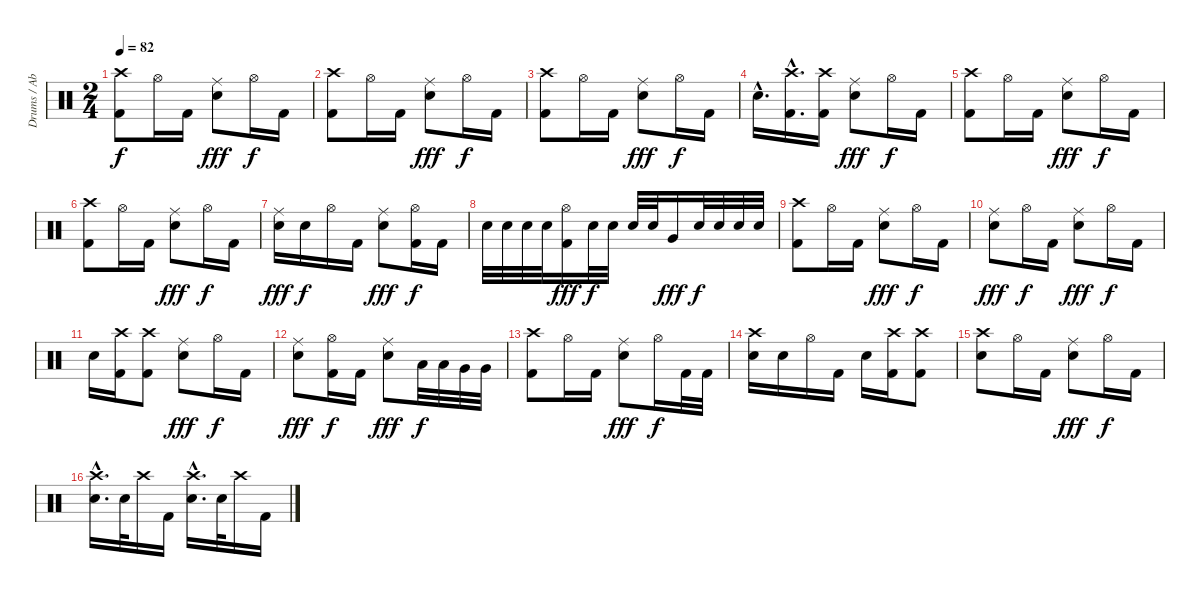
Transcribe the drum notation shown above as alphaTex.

\track ("Drums / Abe Cunningham" "Drums / Ab") {instrument percussion}
\staff {score}
\articulation defaults
\ts (2 4)
\tempo 82
\clef neutral
\ks c
("Crash high (hit)" "Kick (hit) 2").8{dy f} "Hi-Hat (open)".16 "Kick (hit) 2".16 ("Ride (middle)" "Electric Snare (hit)").8{dy fff} "Hi-Hat (open)".16{dy f} "Kick (hit) 2".16 |
("Crash high (hit)" "Kick (hit) 2").8 "Hi-Hat (open)".16 "Kick (hit) 2".16 ("Ride (middle)" "Electric Snare (hit)").8{dy fff} "Hi-Hat (open)".16{dy f} "Kick (hit) 2".16 |
("Crash high (hit)" "Kick (hit) 2").8 "Hi-Hat (open)".16 "Kick (hit) 2".16 ("Ride (middle)" "Electric Snare (hit)").8{dy fff} "Hi-Hat (open)".16{dy f} "Kick (hit) 2".16 |
"Electric Snare (hit)"{hac}.16{d} ("Crash high (hit)"{hac} "Kick (hit) 2"{hac}).16{d} ("Crash high (hit)" "Kick (hit) 2").16 ("Ride (middle)" "Electric Snare (hit)").8{dy fff} "Hi-Hat (open)".16{dy f} "Kick (hit) 2".16 |
("Crash high (hit)" "Kick (hit) 2").8 "Hi-Hat (open)".16 "Kick (hit) 2".16 ("Ride (middle)" "Electric Snare (hit)").8{dy fff} "Hi-Hat (open)".16{dy f} "Kick (hit) 2".16 |
("Crash high (hit)" "Kick (hit) 2").8 "Hi-Hat (open)".16 "Kick (hit) 2".16 ("Ride (middle)" "Electric Snare (hit)").8{dy fff} "Hi-Hat (open)".16{dy f} "Kick (hit) 2".16 |
("Ride (middle)" "Electric Snare (hit)").16{dy fff} "Electric Snare (hit)".16{dy f} "Hi-Hat (open)".16 "Kick (hit) 2".16 ("Ride (middle)" "Electric Snare (hit)").8{dy fff} ("Hi-Hat (open)" "Kick (hit) 2").16{dy f} "Kick (hit) 2".16 |
"Electric Snare (hit)".32 "Electric Snare (hit)".32 "Electric Snare (hit)".32 "Electric Snare (hit)".32 ("Hi-Hat (open)" "Kick (hit) 2").16{dy fff} "Electric Snare (hit)".32{dy f} "Electric Snare (hit)".32 "Electric Snare (hit)".32 "Electric Snare (hit)".32 "Very Low Tom (hit)".16{dy fff} "Electric Snare (hit)".32{dy f} "Electric Snare (hit)".32 "Electric Snare (hit)".32 "Electric Snare (hit)".32 |
("Crash high (hit)" "Kick (hit) 2").8 "Hi-Hat (open)".16 "Kick (hit) 2".16 ("Ride (middle)" "Electric Snare (hit)").8{dy fff} "Hi-Hat (open)".16{dy f} "Kick (hit) 2".16 |
("Ride (middle)" "Electric Snare (hit)").8{dy fff} "Hi-Hat (open)".16{dy f} "Kick (hit) 2".16 ("Ride (middle)" "Electric Snare (hit)").8{dy fff} "Hi-Hat (open)".16{dy f} "Kick (hit) 2".16 |
"Electric Snare (hit)".16 ("Crash high (hit)" "Kick (hit) 2").16 ("Crash high (hit)" "Kick (hit) 2").8 ("Ride (middle)" "Electric Snare (hit)").8{dy fff} "Hi-Hat (open)".16{dy f} "Kick (hit) 2".16 |
("Ride (middle)" "Electric Snare (hit)").8{dy fff} ("Hi-Hat (open)" "Kick (hit) 2").16{dy f} "Kick (hit) 2".16 ("Ride (middle)" "Electric Snare (hit)").8{dy fff} "Low Tom (hit)".32{dy f} "Low Tom (hit)".32 "Very Low Tom (hit)".32 "Very Low Tom (hit)".32 |
("Crash high (hit)" "Kick (hit) 2").8 "Hi-Hat (open)".16 "Kick (hit) 2".16 ("Ride (middle)" "Electric Snare (hit)").8{dy fff} "Hi-Hat (open)".16{dy f} "Kick (hit) 2".32 "Kick (hit) 2".32 |
("Crash high (hit)" "Electric Snare (hit)").16 "Electric Snare (hit)".16 "Hi-Hat (open)".16 "Kick (hit) 2".16 "Electric Snare (hit)".16 ("Crash high (hit)" "Kick (hit) 2").16 ("Crash high (hit)" "Kick (hit) 2").8 |
("Crash high (hit)" "Electric Snare (hit)").8 "Hi-Hat (open)".16 "Kick (hit) 2".16 ("Ride (middle)" "Electric Snare (hit)").8{dy fff} "Hi-Hat (open)".16{dy f} "Kick (hit) 2".16 |
("Crash high (hit)"{hac} "Electric Snare (hit)"{hac}).16{d} "Electric Snare (hit)".32 "Crash high (hit)".16 "Kick (hit) 2".16 ("Crash high (hit)"{hac} "Electric Snare (hit)"{hac}).16{d} "Electric Snare (hit)".32 "Crash high (hit)".16 "Kick (hit) 2".16
